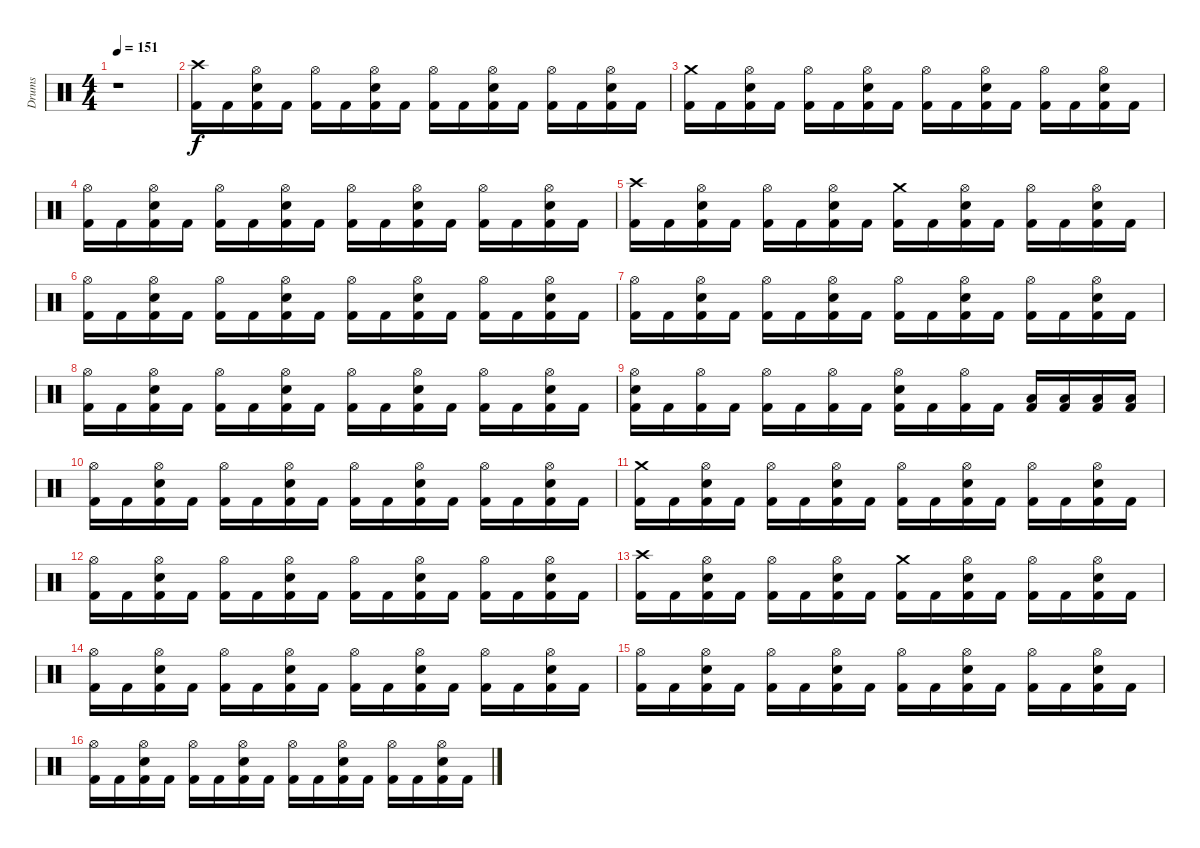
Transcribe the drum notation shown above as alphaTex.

\track ("Drums" "Drums") {instrument percussion}
\staff {score}
\articulation defaults
\ts (4 4)
\tempo 151
\clef neutral
\ks c
r.1{dy f} |
\section ("" "")
("Kick (hit) 2" "Crash high (hit)").16 "Kick (hit) 2".16 ("Kick (hit) 2" "Snare (hit) 2" "Hi-Hat (open)").16 "Kick (hit) 2".16 ("Kick (hit) 2" "Hi-Hat (open)").16 "Kick (hit) 2".16 ("Kick (hit) 2" "Snare (hit) 2" "Hi-Hat (open)").16 "Kick (hit) 2".16 ("Kick (hit) 2" "Hi-Hat (open)").16 "Kick (hit) 2".16 ("Kick (hit) 2" "Snare (hit) 2" "Hi-Hat (open)").16 "Kick (hit) 2".16 ("Kick (hit) 2" "Hi-Hat (open)").16 "Kick (hit) 2".16 ("Kick (hit) 2" "Snare (hit) 2" "Hi-Hat (open)").16 "Kick (hit) 2".16 |
("Kick (hit) 2" "Crash medium (hit)").16 "Kick (hit) 2".16 ("Kick (hit) 2" "Snare (hit) 2" "Hi-Hat (open)").16 "Kick (hit) 2".16 ("Kick (hit) 2" "Hi-Hat (open)").16 "Kick (hit) 2".16 ("Kick (hit) 2" "Snare (hit) 2" "Hi-Hat (open)").16 "Kick (hit) 2".16 ("Kick (hit) 2" "Hi-Hat (open)").16 "Kick (hit) 2".16 ("Kick (hit) 2" "Snare (hit) 2" "Hi-Hat (open)").16 "Kick (hit) 2".16 ("Kick (hit) 2" "Hi-Hat (open)").16 "Kick (hit) 2".16 ("Kick (hit) 2" "Snare (hit) 2" "Hi-Hat (open)").16 "Kick (hit) 2".16 |
("Kick (hit) 2" "Hi-Hat (open)").16 "Kick (hit) 2".16 ("Kick (hit) 2" "Snare (hit) 2" "Hi-Hat (open)").16 "Kick (hit) 2".16 ("Kick (hit) 2" "Hi-Hat (open)").16 "Kick (hit) 2".16 ("Kick (hit) 2" "Snare (hit) 2" "Hi-Hat (open)").16 "Kick (hit) 2".16 ("Kick (hit) 2" "Hi-Hat (open)").16 "Kick (hit) 2".16 ("Kick (hit) 2" "Snare (hit) 2" "Hi-Hat (open)").16 "Kick (hit) 2".16 ("Kick (hit) 2" "Hi-Hat (open)").16 "Kick (hit) 2".16 ("Kick (hit) 2" "Snare (hit) 2" "Hi-Hat (open)").16 "Kick (hit) 2".16 |
("Kick (hit) 2" "Crash high (hit)").16 "Kick (hit) 2".16 ("Kick (hit) 2" "Snare (hit) 2" "Hi-Hat (open)").16 "Kick (hit) 2".16 ("Kick (hit) 2" "Hi-Hat (open)").16 "Kick (hit) 2".16 ("Kick (hit) 2" "Snare (hit) 2" "Hi-Hat (open)").16 "Kick (hit) 2".16 ("Kick (hit) 2" "Crash medium (hit)").16 "Kick (hit) 2".16 ("Kick (hit) 2" "Snare (hit) 2" "Hi-Hat (open)").16 "Kick (hit) 2".16 ("Kick (hit) 2" "Hi-Hat (open)").16 "Kick (hit) 2".16 ("Kick (hit) 2" "Snare (hit) 2" "Hi-Hat (open)").16 "Kick (hit) 2".16 |
("Kick (hit) 2" "Hi-Hat (open)").16 "Kick (hit) 2".16 ("Kick (hit) 2" "Snare (hit) 2" "Hi-Hat (open)").16 "Kick (hit) 2".16 ("Kick (hit) 2" "Hi-Hat (open)").16 "Kick (hit) 2".16 ("Kick (hit) 2" "Snare (hit) 2" "Hi-Hat (open)").16 "Kick (hit) 2".16 ("Kick (hit) 2" "Hi-Hat (open)").16 "Kick (hit) 2".16 ("Kick (hit) 2" "Snare (hit) 2" "Hi-Hat (open)").16 "Kick (hit) 2".16 ("Kick (hit) 2" "Hi-Hat (open)").16 "Kick (hit) 2".16 ("Kick (hit) 2" "Snare (hit) 2" "Hi-Hat (open)").16 "Kick (hit) 2".16 |
("Kick (hit) 2" "Hi-Hat (open)").16 "Kick (hit) 2".16 ("Kick (hit) 2" "Snare (hit) 2" "Hi-Hat (open)").16 "Kick (hit) 2".16 ("Kick (hit) 2" "Hi-Hat (open)").16 "Kick (hit) 2".16 ("Kick (hit) 2" "Snare (hit) 2" "Hi-Hat (open)").16 "Kick (hit) 2".16 ("Kick (hit) 2" "Hi-Hat (open)").16 "Kick (hit) 2".16 ("Kick (hit) 2" "Snare (hit) 2" "Hi-Hat (open)").16 "Kick (hit) 2".16 ("Kick (hit) 2" "Hi-Hat (open)").16 "Kick (hit) 2".16 ("Kick (hit) 2" "Snare (hit) 2" "Hi-Hat (open)").16 "Kick (hit) 2".16 |
("Kick (hit) 2" "Hi-Hat (open)").16 "Kick (hit) 2".16 ("Kick (hit) 2" "Snare (hit) 2" "Hi-Hat (open)").16 "Kick (hit) 2".16 ("Kick (hit) 2" "Hi-Hat (open)").16 "Kick (hit) 2".16 ("Kick (hit) 2" "Snare (hit) 2" "Hi-Hat (open)").16 "Kick (hit) 2".16 ("Kick (hit) 2" "Hi-Hat (open)").16 "Kick (hit) 2".16 ("Kick (hit) 2" "Snare (hit) 2" "Hi-Hat (open)").16 "Kick (hit) 2".16 ("Kick (hit) 2" "Hi-Hat (open)").16 "Kick (hit) 2".16 ("Kick (hit) 2" "Snare (hit) 2" "Hi-Hat (open)").16 "Kick (hit) 2".16 |
("Kick (hit) 2" "Snare (hit) 2" "Hi-Hat (open)").16 "Kick (hit) 2".16 ("Kick (hit) 2" "Hi-Hat (open)").16 "Kick (hit) 2".16 ("Kick (hit) 2" "Hi-Hat (open)").16 "Kick (hit) 2".16 ("Kick (hit) 2" "Hi-Hat (open)").16 "Kick (hit) 2".16 ("Kick (hit) 2" "Snare (hit) 2" "Hi-Hat (open)").16 "Kick (hit) 2".16 ("Kick (hit) 2" "Hi-Hat (open)").16 "Kick (hit) 2".16 ("Kick (hit) 2" "Low Tom (hit)").16 ("Kick (hit) 2" "Low Tom (hit)").16 ("Kick (hit) 2" "Low Tom (hit)").16 ("Kick (hit) 2" "Low Tom (hit)").16 |
\section ("" "")
("Kick (hit) 2" "Hi-Hat (open)").16 "Kick (hit) 2".16 ("Kick (hit) 2" "Snare (hit) 2" "Hi-Hat (open)").16 "Kick (hit) 2".16 ("Kick (hit) 2" "Hi-Hat (open)").16 "Kick (hit) 2".16 ("Kick (hit) 2" "Snare (hit) 2" "Hi-Hat (open)").16 "Kick (hit) 2".16 ("Kick (hit) 2" "Hi-Hat (open)").16 "Kick (hit) 2".16 ("Kick (hit) 2" "Snare (hit) 2" "Hi-Hat (open)").16 "Kick (hit) 2".16 ("Kick (hit) 2" "Hi-Hat (open)").16 "Kick (hit) 2".16 ("Kick (hit) 2" "Snare (hit) 2" "Hi-Hat (open)").16 "Kick (hit) 2".16 |
("Kick (hit) 2" "Crash medium (hit)").16 "Kick (hit) 2".16 ("Kick (hit) 2" "Snare (hit) 2" "Hi-Hat (open)").16 "Kick (hit) 2".16 ("Kick (hit) 2" "Hi-Hat (open)").16 "Kick (hit) 2".16 ("Kick (hit) 2" "Snare (hit) 2" "Hi-Hat (open)").16 "Kick (hit) 2".16 ("Kick (hit) 2" "Hi-Hat (open)").16 "Kick (hit) 2".16 ("Kick (hit) 2" "Snare (hit) 2" "Hi-Hat (open)").16 "Kick (hit) 2".16 ("Kick (hit) 2" "Hi-Hat (open)").16 "Kick (hit) 2".16 ("Kick (hit) 2" "Snare (hit) 2" "Hi-Hat (open)").16 "Kick (hit) 2".16 |
("Kick (hit) 2" "Hi-Hat (open)").16 "Kick (hit) 2".16 ("Kick (hit) 2" "Snare (hit) 2" "Hi-Hat (open)").16 "Kick (hit) 2".16 ("Kick (hit) 2" "Hi-Hat (open)").16 "Kick (hit) 2".16 ("Kick (hit) 2" "Snare (hit) 2" "Hi-Hat (open)").16 "Kick (hit) 2".16 ("Kick (hit) 2" "Hi-Hat (open)").16 "Kick (hit) 2".16 ("Kick (hit) 2" "Snare (hit) 2" "Hi-Hat (open)").16 "Kick (hit) 2".16 ("Kick (hit) 2" "Hi-Hat (open)").16 "Kick (hit) 2".16 ("Kick (hit) 2" "Snare (hit) 2" "Hi-Hat (open)").16 "Kick (hit) 2".16 |
("Kick (hit) 2" "Crash high (hit)").16 "Kick (hit) 2".16 ("Kick (hit) 2" "Snare (hit) 2" "Hi-Hat (open)").16 "Kick (hit) 2".16 ("Kick (hit) 2" "Hi-Hat (open)").16 "Kick (hit) 2".16 ("Kick (hit) 2" "Snare (hit) 2" "Hi-Hat (open)").16 "Kick (hit) 2".16 ("Kick (hit) 2" "Crash medium (hit)").16 "Kick (hit) 2".16 ("Kick (hit) 2" "Snare (hit) 2" "Hi-Hat (open)").16 "Kick (hit) 2".16 ("Kick (hit) 2" "Hi-Hat (open)").16 "Kick (hit) 2".16 ("Kick (hit) 2" "Snare (hit) 2" "Hi-Hat (open)").16 "Kick (hit) 2".16 |
("Kick (hit) 2" "Hi-Hat (open)").16 "Kick (hit) 2".16 ("Kick (hit) 2" "Snare (hit) 2" "Hi-Hat (open)").16 "Kick (hit) 2".16 ("Kick (hit) 2" "Hi-Hat (open)").16 "Kick (hit) 2".16 ("Kick (hit) 2" "Snare (hit) 2" "Hi-Hat (open)").16 "Kick (hit) 2".16 ("Kick (hit) 2" "Hi-Hat (open)").16 "Kick (hit) 2".16 ("Kick (hit) 2" "Snare (hit) 2" "Hi-Hat (open)").16 "Kick (hit) 2".16 ("Kick (hit) 2" "Hi-Hat (open)").16 "Kick (hit) 2".16 ("Kick (hit) 2" "Snare (hit) 2" "Hi-Hat (open)").16 "Kick (hit) 2".16 |
("Kick (hit) 2" "Hi-Hat (open)").16 "Kick (hit) 2".16 ("Kick (hit) 2" "Snare (hit) 2" "Hi-Hat (open)").16 "Kick (hit) 2".16 ("Kick (hit) 2" "Hi-Hat (open)").16 "Kick (hit) 2".16 ("Kick (hit) 2" "Snare (hit) 2" "Hi-Hat (open)").16 "Kick (hit) 2".16 ("Kick (hit) 2" "Hi-Hat (open)").16 "Kick (hit) 2".16 ("Kick (hit) 2" "Snare (hit) 2" "Hi-Hat (open)").16 "Kick (hit) 2".16 ("Kick (hit) 2" "Hi-Hat (open)").16 "Kick (hit) 2".16 ("Kick (hit) 2" "Snare (hit) 2" "Hi-Hat (open)").16 "Kick (hit) 2".16 |
("Kick (hit) 2" "Hi-Hat (open)").16 "Kick (hit) 2".16 ("Kick (hit) 2" "Snare (hit) 2" "Hi-Hat (open)").16 "Kick (hit) 2".16 ("Kick (hit) 2" "Hi-Hat (open)").16 "Kick (hit) 2".16 ("Kick (hit) 2" "Snare (hit) 2" "Hi-Hat (open)").16 "Kick (hit) 2".16 ("Kick (hit) 2" "Hi-Hat (open)").16 "Kick (hit) 2".16 ("Kick (hit) 2" "Snare (hit) 2" "Hi-Hat (open)").16 "Kick (hit) 2".16 ("Kick (hit) 2" "Hi-Hat (open)").16 "Kick (hit) 2".16 ("Kick (hit) 2" "Snare (hit) 2" "Hi-Hat (open)").16 "Kick (hit) 2".16
